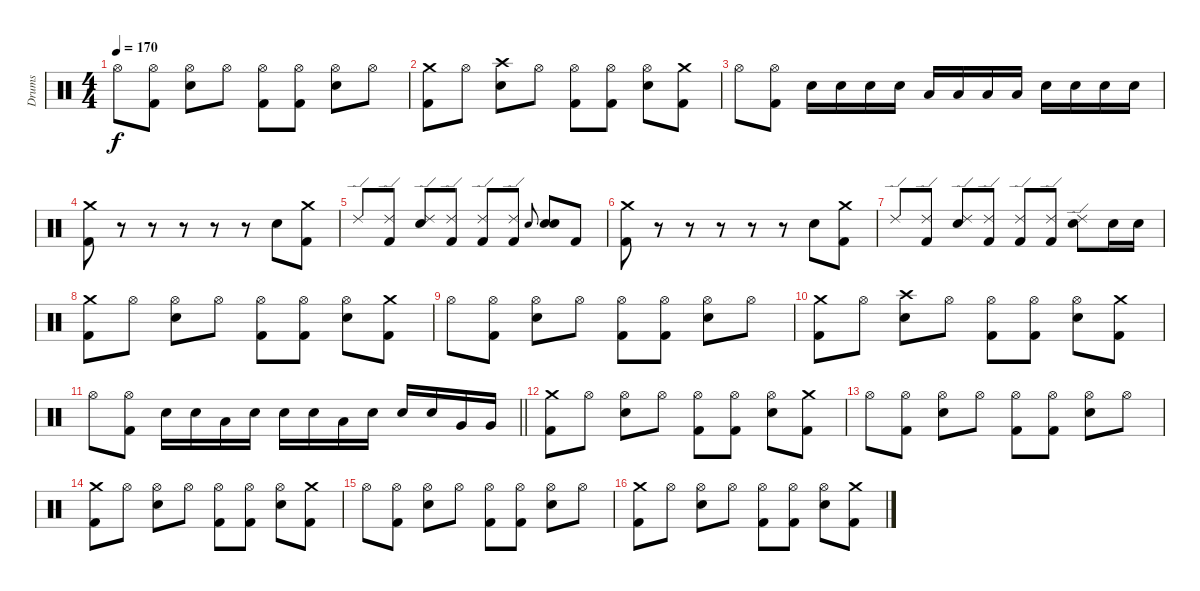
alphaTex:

\track ("Drums" "Drums") {instrument percussion}
\staff {score}
\articulation defaults
\ts (4 4)
\tempo 170
\clef neutral
\ks c "Hi-Hat (open)".8{dy f}
("Hi-Hat (open)" "Kick (hit) 2").8 ("Hi-Hat (open)" "Electric Snare (hit)").8 "Hi-Hat (open)".8 ("Hi-Hat (open)" "Kick (hit) 2").8 ("Hi-Hat (open)" "Kick (hit) 2").8 ("Hi-Hat (open)" "Electric Snare (hit)").8 "Hi-Hat (open)".8 |
("Crash medium (hit)" "Kick (hit) 2").8 "Hi-Hat (open)".8 ("Crash high (hit)" "Electric Snare (hit)").8 "Hi-Hat (open)".8 ("Hi-Hat (open)" "Kick (hit) 2").8 ("Hi-Hat (open)" "Kick (hit) 2").8 ("Hi-Hat (open)" "Electric Snare (hit)").8 ("Crash medium (hit)" "Kick (hit) 2").8 |
"Hi-Hat (open)".8 ("Hi-Hat (open)" "Kick (hit) 2").8 "Electric Snare (hit)".16 "Electric Snare (hit)".16 "Electric Snare (hit)".16 "Electric Snare (hit)".16 "Low Tom (hit)".16 "Low Tom (hit)".16 "Low Tom (hit)".16 "Low Tom (hit)".16 "Electric Snare (hit)".16 "Electric Snare (hit)".16 "Electric Snare (hit)".16 "Electric Snare (hit)".16 |
("Crash medium (hit)" "Kick (hit) 2").8 r.8 r.8 r.8 r.8 r.8 "Electric Snare (hit)".8 ("Crash medium (hit)" "Kick (hit) 2").8 |
"Ride (edge) 2".8 ("Ride (edge) 2" "Kick (hit) 2").8 ("Ride (edge) 2" "Electric Snare (hit)").8 ("Ride (edge) 2" "Kick (hit) 2").8 ("Ride (edge) 2" "Kick (hit) 2").8 ("Ride (edge) 2" "Kick (hit) 2").8 "Electric Snare (hit)".8{gr onbeat} ("Electric Snare (hit)" "Electric Snare (hit)").8 "Kick (hit) 2".8 |
("Crash medium (hit)" "Kick (hit) 2").8 r.8 r.8 r.8 r.8 r.8 "Electric Snare (hit)".8 ("Crash medium (hit)" "Kick (hit) 2").8 |
"Ride (edge) 2".8 ("Ride (edge) 2" "Kick (hit) 2").8 ("Ride (edge) 2" "Electric Snare (hit)").8 ("Ride (edge) 2" "Kick (hit) 2").8 ("Ride (edge) 2" "Kick (hit) 2").8 ("Ride (edge) 2" "Kick (hit) 2").8 ("Ride (edge) 2" "Electric Snare (hit)").8 "Electric Snare (hit)".16 "Electric Snare (hit)".16 |
("Crash medium (hit)" "Kick (hit) 2").8 "Hi-Hat (open)".8 ("Hi-Hat (open)" "Electric Snare (hit)").8 "Hi-Hat (open)".8 ("Hi-Hat (open)" "Kick (hit) 2").8 ("Hi-Hat (open)" "Kick (hit) 2").8 ("Hi-Hat (open)" "Electric Snare (hit)").8 ("Crash medium (hit)" "Kick (hit) 2").8 |
"Hi-Hat (open)".8 ("Hi-Hat (open)" "Kick (hit) 2").8 ("Hi-Hat (open)" "Electric Snare (hit)").8 "Hi-Hat (open)".8 ("Hi-Hat (open)" "Kick (hit) 2").8 ("Hi-Hat (open)" "Kick (hit) 2").8 ("Hi-Hat (open)" "Electric Snare (hit)").8 "Hi-Hat (open)".8 |
("Crash medium (hit)" "Kick (hit) 2").8 "Hi-Hat (open)".8 ("Crash high (hit)" "Electric Snare (hit)").8 "Hi-Hat (open)".8 ("Hi-Hat (open)" "Kick (hit) 2").8 ("Hi-Hat (open)" "Kick (hit) 2").8 ("Hi-Hat (open)" "Electric Snare (hit)").8 ("Crash medium (hit)" "Kick (hit) 2").8 |
\barLineRight lightlight "Hi-Hat (open)".8
("Hi-Hat (open)" "Kick (hit) 2").8 "Electric Snare (hit)".16 "Electric Snare (hit)".16 "Low Tom (hit)".16 "Electric Snare (hit)".16 "Electric Snare (hit)".16 "Electric Snare (hit)".16 "Low Tom (hit)".16 "Electric Snare (hit)".16 "Electric Snare (hit)".16 "Electric Snare (hit)".16 "Very Low Tom (hit)".16 "Very Low Tom (hit)".16 |
("Crash medium (hit)" "Kick (hit) 2").8 "Hi-Hat (open)".8 ("Hi-Hat (open)" "Electric Snare (hit)").8 "Hi-Hat (open)".8 ("Hi-Hat (open)" "Kick (hit) 2").8 ("Hi-Hat (open)" "Kick (hit) 2").8 ("Hi-Hat (open)" "Electric Snare (hit)").8 ("Crash medium (hit)" "Kick (hit) 2").8 |
"Hi-Hat (open)".8 ("Hi-Hat (open)" "Kick (hit) 2").8 ("Hi-Hat (open)" "Electric Snare (hit)").8 "Hi-Hat (open)".8 ("Hi-Hat (open)" "Kick (hit) 2").8 ("Hi-Hat (open)" "Kick (hit) 2").8 ("Hi-Hat (open)" "Electric Snare (hit)").8 "Hi-Hat (open)".8 |
("Crash medium (hit)" "Kick (hit) 2").8 "Hi-Hat (open)".8 ("Hi-Hat (open)" "Electric Snare (hit)").8 "Hi-Hat (open)".8 ("Hi-Hat (open)" "Kick (hit) 2").8 ("Hi-Hat (open)" "Kick (hit) 2").8 ("Hi-Hat (open)" "Electric Snare (hit)").8 ("Crash medium (hit)" "Kick (hit) 2").8 |
"Hi-Hat (open)".8 ("Hi-Hat (open)" "Kick (hit) 2").8 ("Hi-Hat (open)" "Electric Snare (hit)").8 "Hi-Hat (open)".8 ("Hi-Hat (open)" "Kick (hit) 2").8 ("Hi-Hat (open)" "Kick (hit) 2").8 ("Hi-Hat (open)" "Electric Snare (hit)").8 "Hi-Hat (open)".8 |
("Crash medium (hit)" "Kick (hit) 2").8 "Hi-Hat (open)".8 ("Hi-Hat (open)" "Electric Snare (hit)").8 "Hi-Hat (open)".8 ("Hi-Hat (open)" "Kick (hit) 2").8 ("Hi-Hat (open)" "Kick (hit) 2").8 ("Hi-Hat (open)" "Electric Snare (hit)").8 ("Crash medium (hit)" "Kick (hit) 2").8
